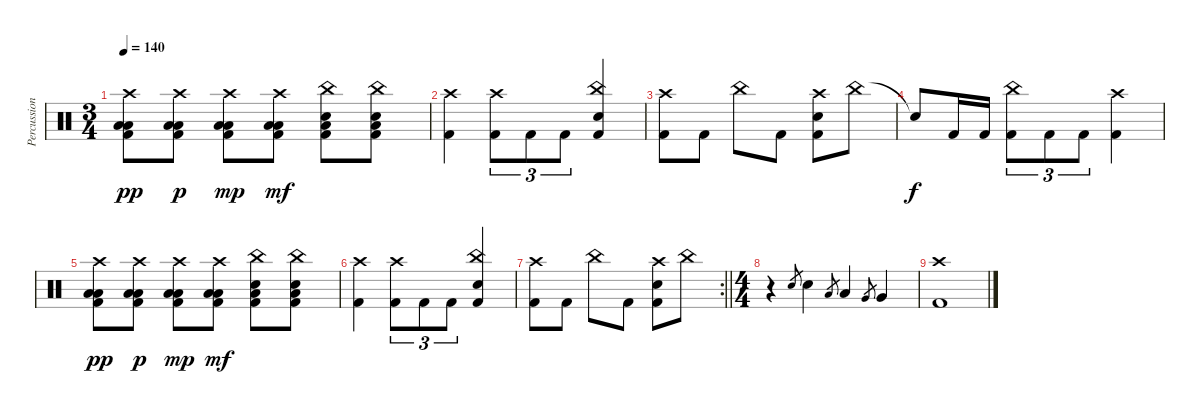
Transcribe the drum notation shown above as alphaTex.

\track ("Percussions" "Percussion") {instrument percussion}
\staff {score}
\articulation defaults
\ts (3 4)
\tempo 140
\clef neutral
\ks c
("Crash high (hit)" "Low Tom (hit)" "Low Floor Tom (hit)" "Kick (hit) 2").8{dy pp} ("Crash high (hit)" "Low Tom (hit)" "Low Floor Tom (hit)" "Kick (hit) 2").8{dy p} ("Crash high (hit)" "Low Tom (hit)" "Low Floor Tom (hit)" "Kick (hit) 2").8{dy mp} ("Crash high (hit)" "Low Tom (hit)" "Low Floor Tom (hit)" "Kick (hit) 2").8{dy mf} ("China (hit)" "Electric Snare (hit)" "Low Floor Tom (hit)" "Kick (hit) 2").8 ("China (hit)" "Electric Snare (hit)" "Low Floor Tom (hit)" "Kick (hit) 2").8 |
("Crash high (hit)" "Kick (hit) 2").4 ("Crash high (hit)" "Kick (hit) 2").8{tu (3 2)} "Kick (hit) 2".8{tu (3 2)} "Kick (hit) 2".8{tu (3 2)} ("China (hit)" "Electric Snare (hit)" "Kick (hit) 2").4 |
("Crash high (hit)" "Kick (hit) 2").8 "Kick (hit) 2".8 "China (hit)".8 "Kick (hit) 2".8 ("Crash high (hit)" "Electric Snare (hit)" "Kick (hit) 2").8 "China (hit)".8 |
"Snare (hit)"{t}.8{dy f} "Kick (hit) 2".16 "Kick (hit) 2".16 ("China (hit)" "Kick (hit) 2").8{tu (3 2)} "Kick (hit) 2".8{tu (3 2)} "Kick (hit) 2".8{tu (3 2)} ("Crash high (hit)" "Kick (hit) 2").4 |
("Crash high (hit)" "Low Tom (hit)" "Low Floor Tom (hit)" "Kick (hit) 2").8{dy pp} ("Crash high (hit)" "Low Tom (hit)" "Low Floor Tom (hit)" "Kick (hit) 2").8{dy p} ("Crash high (hit)" "Low Tom (hit)" "Low Floor Tom (hit)" "Kick (hit) 2").8{dy mp} ("Crash high (hit)" "Low Tom (hit)" "Low Floor Tom (hit)" "Kick (hit) 2").8{dy mf} ("China (hit)" "Electric Snare (hit)" "Low Floor Tom (hit)" "Kick (hit) 2").8 ("China (hit)" "Electric Snare (hit)" "Low Floor Tom (hit)" "Kick (hit) 2").8 |
("Crash high (hit)" "Kick (hit) 2").4 ("Crash high (hit)" "Kick (hit) 2").8{tu (3 2)} "Kick (hit) 2".8{tu (3 2)} "Kick (hit) 2".8{tu (3 2)} ("China (hit)" "Electric Snare (hit)" "Kick (hit) 2").4 |
\rc 2
\barLineRight lightlight
("Crash high (hit)" "Kick (hit) 2").8 "Kick (hit) 2".8 "China (hit)".8 "Kick (hit) 2".8 ("Crash high (hit)" "Electric Snare (hit)" "Kick (hit) 2").8 "China (hit)".8 |
\ts (4 4)
r.4 "Electric Snare (hit)".8{gr} "Electric Snare (hit)".4 "Low Tom (hit)".8{gr} "Low Tom (hit)".4 "Very Low Tom (hit)".8{gr} "Very Low Tom (hit)".4 |
("Crash high (hit)" "Kick (hit) 2").1
